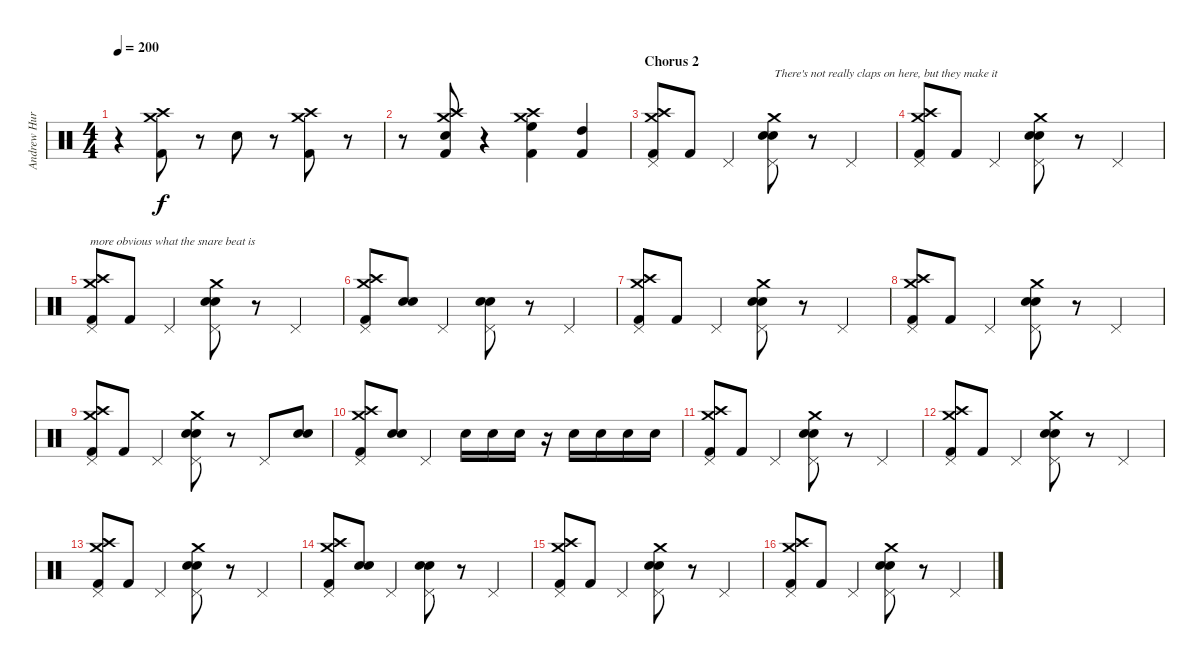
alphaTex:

\track ("Andrew Hurley (Drums)" "Andrew Hur") {instrument percussion}
\staff {score}
\articulation defaults
\ts (4 4)
\tempo 200
\clef neutral
\ks c
r.4{dy f} ("Kick (hit) 2" "Crash medium (hit)" "Crash high (hit)").8 r.8 "Electric Snare (hit)".8 r.8 ("Kick (hit) 2" "Crash medium (hit)" "Crash high (hit)").8 r.8 |
r.8 ("Kick (hit) 2" "Electric Snare (hit)" "Crash medium (hit)" "Crash high (hit)").8 r.4 ("Kick (hit) 2" "High Floor Tom (hit)" "Crash medium (hit)" "Crash high (hit)").4 ("Kick (hit) 2" "High Tom (hit)").4 |
\section ("" "Chorus 2")
("Kick (hit) 2" "Pedal Hi-Hat (hit)" "Crash high (hit)" "Crash medium (hit)").8 "Kick (hit) 2".8 "Pedal Hi-Hat (hit)".4 ("Hand Clap (hit)" "Electric Snare (hit)" "Pedal Hi-Hat (hit)" "Crash medium (hit)").8{txt "There's not really claps on here, but they make it"} r.8 "Pedal Hi-Hat (hit)".4 |
("Kick (hit) 2" "Pedal Hi-Hat (hit)" "Crash high (hit)" "Crash medium (hit)").8 "Kick (hit) 2".8 "Pedal Hi-Hat (hit)".4 ("Hand Clap (hit)" "Electric Snare (hit)" "Pedal Hi-Hat (hit)" "Crash medium (hit)").8 r.8 "Pedal Hi-Hat (hit)".4 |
("Kick (hit) 2" "Pedal Hi-Hat (hit)" "Crash high (hit)" "Crash medium (hit)").8{txt "more obvious what the snare beat is"} "Kick (hit) 2".8 "Pedal Hi-Hat (hit)".4 ("Hand Clap (hit)" "Electric Snare (hit)" "Pedal Hi-Hat (hit)" "Crash medium (hit)").8 r.8 "Pedal Hi-Hat (hit)".4 |
("Kick (hit) 2" "Pedal Hi-Hat (hit)" "Crash high (hit)" "Crash medium (hit)").8 ("Hand Clap (hit)" "Electric Snare (hit)").8 "Pedal Hi-Hat (hit)".4 ("Hand Clap (hit)" "Electric Snare (hit)" "Pedal Hi-Hat (hit)").8 r.8 "Pedal Hi-Hat (hit)".4 |
("Kick (hit) 2" "Pedal Hi-Hat (hit)" "Crash high (hit)" "Crash medium (hit)").8 "Kick (hit) 2".8 "Pedal Hi-Hat (hit)".4 ("Hand Clap (hit)" "Electric Snare (hit)" "Pedal Hi-Hat (hit)" "Crash medium (hit)").8 r.8 "Pedal Hi-Hat (hit)".4 |
("Kick (hit) 2" "Pedal Hi-Hat (hit)" "Crash high (hit)" "Crash medium (hit)").8 "Kick (hit) 2".8 "Pedal Hi-Hat (hit)".4 ("Hand Clap (hit)" "Electric Snare (hit)" "Pedal Hi-Hat (hit)" "Crash medium (hit)").8 r.8 "Pedal Hi-Hat (hit)".4 |
("Kick (hit) 2" "Pedal Hi-Hat (hit)" "Crash high (hit)" "Crash medium (hit)").8 "Kick (hit) 2".8 "Pedal Hi-Hat (hit)".4 ("Hand Clap (hit)" "Electric Snare (hit)" "Pedal Hi-Hat (hit)" "Crash medium (hit)").8 r.8 "Pedal Hi-Hat (hit)".8 ("Hand Clap (hit)" "Electric Snare (hit)").8 |
("Kick (hit) 2" "Pedal Hi-Hat (hit)" "Crash high (hit)" "Crash medium (hit)").8 ("Hand Clap (hit)" "Electric Snare (hit)").8 "Pedal Hi-Hat (hit)".4 "Electric Snare (hit)".16 "Electric Snare (hit)".16 "Electric Snare (hit)".16 r.16 "Electric Snare (hit)".16 "Electric Snare (hit)".16 "Electric Snare (hit)".16 "Electric Snare (hit)".16 |
("Kick (hit) 2" "Pedal Hi-Hat (hit)" "Crash high (hit)" "Crash medium (hit)").8 "Kick (hit) 2".8 "Pedal Hi-Hat (hit)".4 ("Hand Clap (hit)" "Electric Snare (hit)" "Pedal Hi-Hat (hit)" "Crash medium (hit)").8 r.8 "Pedal Hi-Hat (hit)".4 |
("Kick (hit) 2" "Pedal Hi-Hat (hit)" "Crash high (hit)" "Crash medium (hit)").8 "Kick (hit) 2".8 "Pedal Hi-Hat (hit)".4 ("Hand Clap (hit)" "Electric Snare (hit)" "Pedal Hi-Hat (hit)" "Crash medium (hit)").8 r.8 "Pedal Hi-Hat (hit)".4 |
("Kick (hit) 2" "Pedal Hi-Hat (hit)" "Crash high (hit)" "Crash medium (hit)").8 "Kick (hit) 2".8 "Pedal Hi-Hat (hit)".4 ("Hand Clap (hit)" "Electric Snare (hit)" "Pedal Hi-Hat (hit)" "Crash medium (hit)").8 r.8 "Pedal Hi-Hat (hit)".4 |
("Kick (hit) 2" "Pedal Hi-Hat (hit)" "Crash high (hit)" "Crash medium (hit)").8 ("Hand Clap (hit)" "Electric Snare (hit)").8 "Pedal Hi-Hat (hit)".4 ("Hand Clap (hit)" "Electric Snare (hit)" "Pedal Hi-Hat (hit)").8 r.8 "Pedal Hi-Hat (hit)".4 |
("Kick (hit) 2" "Pedal Hi-Hat (hit)" "Crash high (hit)" "Crash medium (hit)").8 "Kick (hit) 2".8 "Pedal Hi-Hat (hit)".4 ("Hand Clap (hit)" "Electric Snare (hit)" "Pedal Hi-Hat (hit)" "Crash medium (hit)").8 r.8 "Pedal Hi-Hat (hit)".4 |
("Kick (hit) 2" "Pedal Hi-Hat (hit)" "Crash high (hit)" "Crash medium (hit)").8 "Kick (hit) 2".8 "Pedal Hi-Hat (hit)".4 ("Hand Clap (hit)" "Electric Snare (hit)" "Pedal Hi-Hat (hit)" "Crash medium (hit)").8 r.8 "Pedal Hi-Hat (hit)".4
